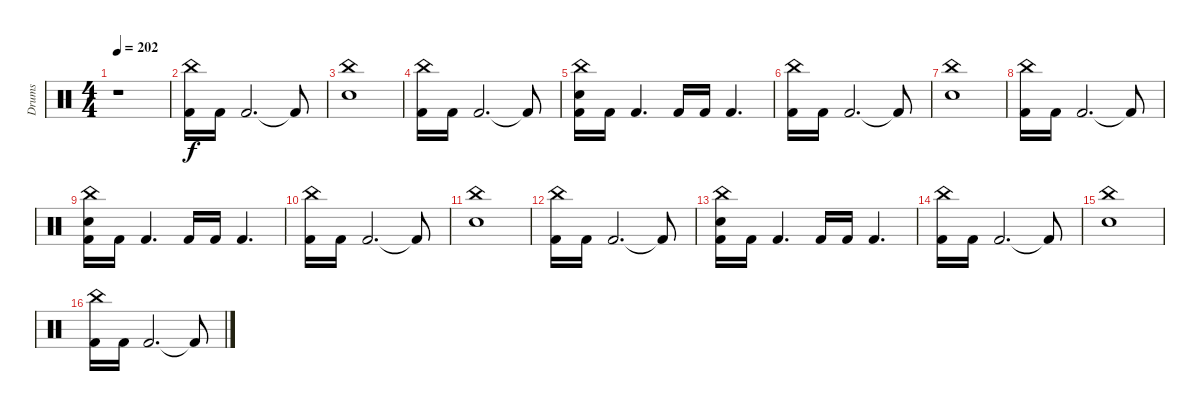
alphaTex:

\track ("Drums" "Drums") {instrument percussion}
\staff {score}
\articulation defaults
\ts (4 4)
\tempo 202
\clef neutral
\ks c
r.1{dy f} |
("China (hit)" "Kick (hit) 2").16 "Kick (hit) 2".16 "Kick (hit) 2".2{d} "Kick (hit) 2"{t}.8 |
("China (hit)" "Electric Snare (hit)").1 |
("China (hit)" "Kick (hit) 2").16 "Kick (hit) 2".16 "Kick (hit) 2".2{d} "Kick (hit) 2"{t}.8 |
("China (hit)" "Electric Snare (hit)" "Kick (hit) 2").16 "Kick (hit) 2".16 "Kick (hit) 2".4{d} "Kick (hit) 2".16 "Kick (hit) 2".16 "Kick (hit) 2".4{d} |
("China (hit)" "Kick (hit) 2").16 "Kick (hit) 2".16 "Kick (hit) 2".2{d} "Kick (hit) 2"{t}.8 |
("China (hit)" "Electric Snare (hit)").1 |
("China (hit)" "Kick (hit) 2").16 "Kick (hit) 2".16 "Kick (hit) 2".2{d} "Kick (hit) 2"{t}.8 |
("China (hit)" "Electric Snare (hit)" "Kick (hit) 2").16 "Kick (hit) 2".16 "Kick (hit) 2".4{d} "Kick (hit) 2".16 "Kick (hit) 2".16 "Kick (hit) 2".4{d} |
("China (hit)" "Kick (hit) 2").16 "Kick (hit) 2".16 "Kick (hit) 2".2{d} "Kick (hit) 2"{t}.8 |
("China (hit)" "Electric Snare (hit)").1 |
("China (hit)" "Kick (hit) 2").16 "Kick (hit) 2".16 "Kick (hit) 2".2{d} "Kick (hit) 2"{t}.8 |
("China (hit)" "Electric Snare (hit)" "Kick (hit) 2").16 "Kick (hit) 2".16 "Kick (hit) 2".4{d} "Kick (hit) 2".16 "Kick (hit) 2".16 "Kick (hit) 2".4{d} |
("China (hit)" "Kick (hit) 2").16 "Kick (hit) 2".16 "Kick (hit) 2".2{d} "Kick (hit) 2"{t}.8 |
("China (hit)" "Electric Snare (hit)").1 |
("China (hit)" "Kick (hit) 2").16 "Kick (hit) 2".16 "Kick (hit) 2".2{d} "Kick (hit) 2"{t}.8
